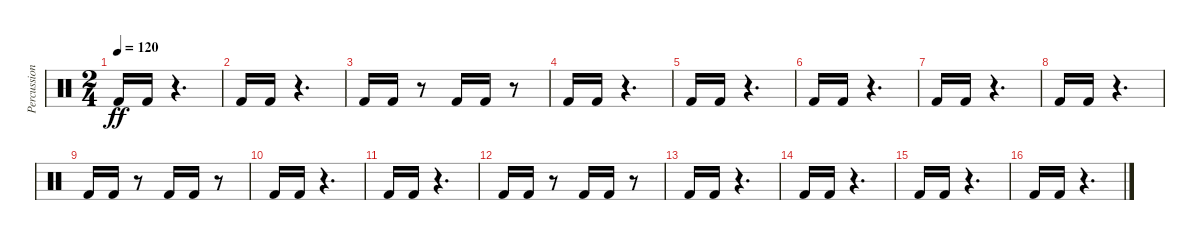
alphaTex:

\track ("Percussion" "Percussion") {instrument percussion}
\staff {score}
\articulation defaults
\ts (2 4)
\tempo 120
\clef neutral
\ks c "Kick (hit) 2".16{dy ff} "Kick (hit) 2".16
r.4{d} |
"Kick (hit) 2".16 "Kick (hit) 2".16 r.4{d} |
"Kick (hit) 2".16 "Kick (hit) 2".16 r.8 "Kick (hit) 2".16 "Kick (hit) 2".16 r.8 |
"Kick (hit) 2".16 "Kick (hit) 2".16 r.4{d} |
"Kick (hit) 2".16 "Kick (hit) 2".16 r.4{d} |
"Kick (hit) 2".16 "Kick (hit) 2".16 r.4{d} |
"Kick (hit) 2".16 "Kick (hit) 2".16 r.4{d} |
"Kick (hit) 2".16 "Kick (hit) 2".16 r.4{d} |
"Kick (hit) 2".16 "Kick (hit) 2".16 r.8 "Kick (hit) 2".16 "Kick (hit) 2".16 r.8 |
"Kick (hit) 2".16 "Kick (hit) 2".16 r.4{d} |
"Kick (hit) 2".16 "Kick (hit) 2".16 r.4{d} |
"Kick (hit) 2".16 "Kick (hit) 2".16 r.8 "Kick (hit) 2".16 "Kick (hit) 2".16 r.8 |
"Kick (hit) 2".16 "Kick (hit) 2".16 r.4{d} |
"Kick (hit) 2".16 "Kick (hit) 2".16 r.4{d} |
"Kick (hit) 2".16 "Kick (hit) 2".16 r.4{d} |
"Kick (hit) 2".16 "Kick (hit) 2".16 r.4{d}
